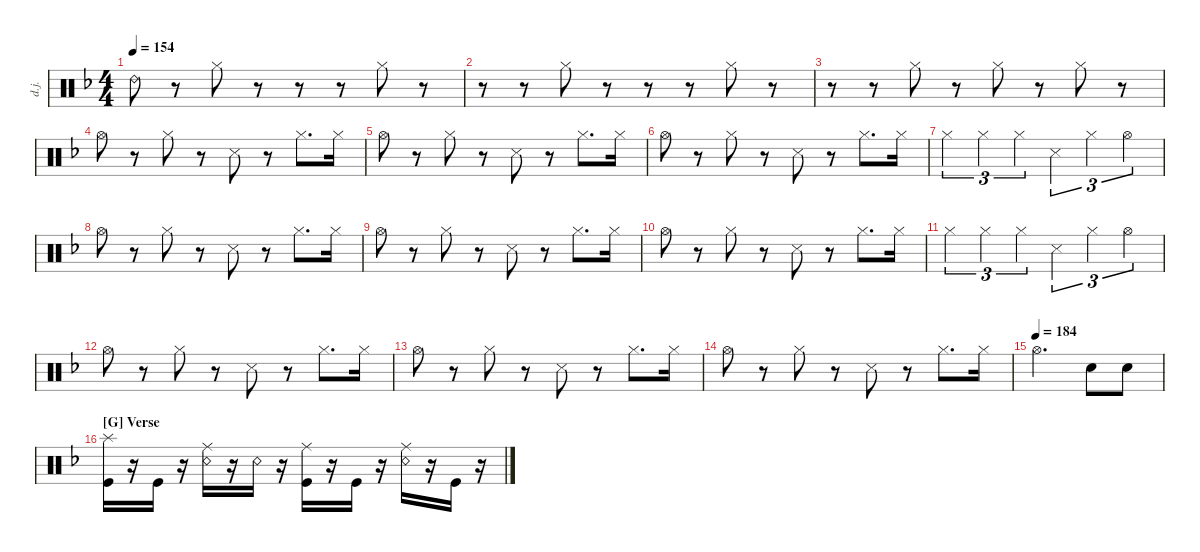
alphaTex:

\defaultSystemsLayout 4
\hideDynamics
\bracketExtendMode nobrackets
\otherSystemsTrackNameOrientation horizontal
\track ("Drumkit Jason" "d.j.") {instrument percussion}
\staff {score}
\articulation defaults
\ts (4 4)
\tempo 154
\clef neutral
\ks dminor "Ride (bell) 2".8{dy ff}
r.8 "Hi-Hat (closed)".8 r.8 r.8 r.8 "Hi-Hat (closed)".8 r.8 |
r.8 r.8 "Hi-Hat (closed)".8 r.8 r.8 r.8 "Hi-Hat (closed)".8 r.8 |
r.8 r.8 "Hi-Hat (closed)".8 r.8 "Hi-Hat (closed)".8 r.8 "Hi-Hat (closed)".8 r.8 |
"Hi-Hat (open)".8 r.8 "Hi-Hat (closed)".8 r.8 "Snare (side stick) 3".8 r.8 "Hi-Hat (closed)".8{d} "Hi-Hat (closed)".16 |
"Hi-Hat (open)".8 r.8 "Hi-Hat (closed)".8 r.8 "Snare (side stick) 3".8 r.8 "Hi-Hat (closed)".8{d} "Hi-Hat (closed)".16 |
"Hi-Hat (open)".8 r.8 "Hi-Hat (closed)".8 r.8 "Snare (side stick) 3".8 r.8 "Hi-Hat (closed)".8{d} "Hi-Hat (closed)".16 |
"Hi-Hat (closed)".4{tu (3 2)} "Hi-Hat (closed)".4{tu (3 2)} "Hi-Hat (closed)".4{tu (3 2)} "Snare (side stick) 3".4{tu (3 2)} "Hi-Hat (closed)".4{tu (3 2)} "Hi-Hat (open)".4{tu (3 2)} |
"Hi-Hat (open)".8 r.8 "Hi-Hat (closed)".8 r.8 "Snare (side stick) 3".8 r.8 "Hi-Hat (closed)".8{d} "Hi-Hat (closed)".16 |
"Hi-Hat (open)".8 r.8 "Hi-Hat (closed)".8 r.8 "Snare (side stick) 3".8 r.8 "Hi-Hat (closed)".8{d} "Hi-Hat (closed)".16 |
"Hi-Hat (open)".8 r.8 "Hi-Hat (closed)".8 r.8 "Snare (side stick) 3".8 r.8 "Hi-Hat (closed)".8{d} "Hi-Hat (closed)".16 |
"Hi-Hat (closed)".4{tu (3 2)} "Hi-Hat (closed)".4{tu (3 2)} "Hi-Hat (closed)".4{tu (3 2)} "Snare (side stick) 3".4{tu (3 2)} "Hi-Hat (closed)".4{tu (3 2)} "Hi-Hat (open)".4{tu (3 2)} |
"Hi-Hat (open)".8 r.8 "Hi-Hat (closed)".8 r.8 "Snare (side stick) 3".8 r.8 "Hi-Hat (closed)".8{d} "Hi-Hat (closed)".16 |
"Hi-Hat (open)".8 r.8 "Hi-Hat (closed)".8 r.8 "Snare (side stick) 3".8 r.8 "Hi-Hat (closed)".8{d} "Hi-Hat (closed)".16 |
"Hi-Hat (open)".8 r.8 "Hi-Hat (closed)".8 r.8 "Snare (side stick) 3".8 r.8 "Hi-Hat (closed)".8{d} "Hi-Hat (closed)".16 |
\tempo (184)
"Hi-Hat (open)".2{d} "Snare (hit) 2".8 "Snare (hit) 2".8 |
\section ("G" "Verse")
("Kick (hit)" "Splash (hit)").16 r.16 "Kick (hit)".16 r.16 ("Snare (rim shot)" "Ride (middle)").16 r.16 "Snare (rim shot)".16 r.16 ("Kick (hit)" "Ride (middle)").16 r.16 "Kick (hit)".16 r.16 ("Snare (rim shot)" "Ride (middle)").16 r.16 "Kick (hit)".16 r.16
